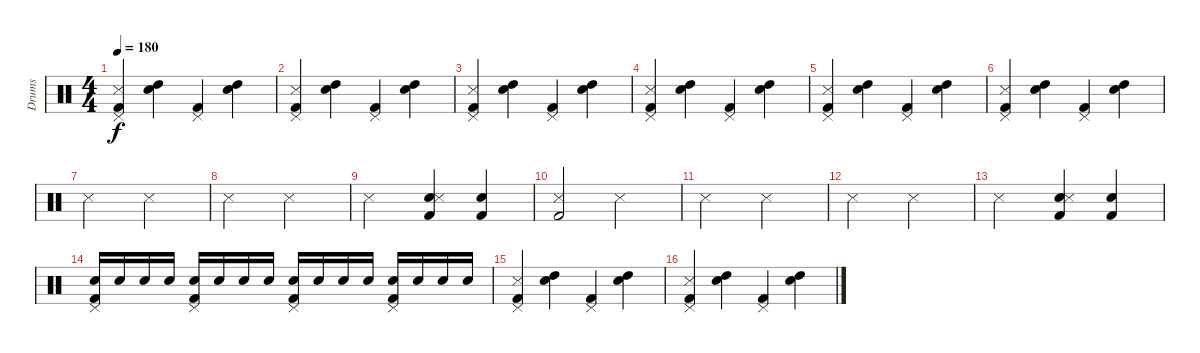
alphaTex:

\track ("Drums" "Drums") {instrument percussion}
\staff {score}
\articulation defaults
\ts (4 4)
\tempo 180
\clef neutral
\ks c
("Kick (hit) 2" "Pedal Hi-Hat (hit)" "Snare (side stick) 3").4{dy f} ("Snare (hit) 2" "High Tom (hit)").4 ("Kick (hit) 2" "Pedal Hi-Hat (hit)").4 ("Snare (hit) 2" "High Tom (hit)").4 |
("Kick (hit) 2" "Pedal Hi-Hat (hit)" "Snare (side stick) 3").4 ("Snare (hit) 2" "High Tom (hit)").4 ("Kick (hit) 2" "Pedal Hi-Hat (hit)").4 ("Snare (hit) 2" "High Tom (hit)").4 |
("Kick (hit) 2" "Pedal Hi-Hat (hit)" "Snare (side stick) 3").4 ("Snare (hit) 2" "High Tom (hit)").4 ("Kick (hit) 2" "Pedal Hi-Hat (hit)").4 ("Snare (hit) 2" "High Tom (hit)").4 |
("Kick (hit) 2" "Pedal Hi-Hat (hit)" "Snare (side stick) 3").4 ("Snare (hit) 2" "High Tom (hit)").4 ("Kick (hit) 2" "Pedal Hi-Hat (hit)").4 ("Snare (hit) 2" "High Tom (hit)").4 |
("Kick (hit) 2" "Pedal Hi-Hat (hit)" "Snare (side stick) 3").4 ("Snare (hit) 2" "High Tom (hit)").4 ("Kick (hit) 2" "Pedal Hi-Hat (hit)").4 ("Snare (hit) 2" "High Tom (hit)").4 |
("Kick (hit) 2" "Pedal Hi-Hat (hit)" "Snare (side stick) 3").4 ("Snare (hit) 2" "High Tom (hit)").4 ("Kick (hit) 2" "Pedal Hi-Hat (hit)").4 ("Snare (hit) 2" "High Tom (hit)").4 |
"Snare (side stick) 3".2 "Snare (side stick) 3".2 |
"Snare (side stick) 3".2 "Snare (side stick) 3".2 |
"Snare (side stick) 3".2 ("Kick (hit) 2" "Snare (hit) 2" "Snare (side stick) 3").4 ("Kick (hit) 2" "Snare (hit) 2").4 |
("Kick (hit) 2" "Snare (side stick) 3").2 "Snare (side stick) 3".2 |
"Snare (side stick) 3".2 "Snare (side stick) 3".2 |
"Snare (side stick) 3".2 "Snare (side stick) 3".2 |
"Snare (side stick) 3".2 ("Kick (hit) 2" "Snare (hit) 2" "Snare (side stick) 3").4 ("Kick (hit) 2" "Snare (hit) 2").4 |
("Kick (hit) 2" "Snare (hit) 2" "Pedal Hi-Hat (hit)").16 "Snare (hit) 2".16 "Snare (hit) 2".16 "Snare (hit) 2".16 ("Kick (hit) 2" "Snare (hit) 2" "Pedal Hi-Hat (hit)").16 "Snare (hit) 2".16 "Snare (hit) 2".16 "Snare (hit) 2".16 ("Kick (hit) 2" "Snare (hit) 2" "Pedal Hi-Hat (hit)").16 "Snare (hit) 2".16 "Snare (hit) 2".16 "Snare (hit) 2".16 ("Kick (hit) 2" "Snare (hit) 2" "Pedal Hi-Hat (hit)").16 "Snare (hit) 2".16 "Snare (hit) 2".16 "Snare (hit) 2".16 |
("Kick (hit) 2" "Pedal Hi-Hat (hit)" "Snare (side stick) 3").4 ("Snare (hit) 2" "High Tom (hit)").4 ("Kick (hit) 2" "Pedal Hi-Hat (hit)").4 ("Snare (hit) 2" "High Tom (hit)").4 |
("Kick (hit) 2" "Pedal Hi-Hat (hit)" "Snare (side stick) 3").4 ("Snare (hit) 2" "High Tom (hit)").4 ("Kick (hit) 2" "Pedal Hi-Hat (hit)").4 ("Snare (hit) 2" "High Tom (hit)").4
